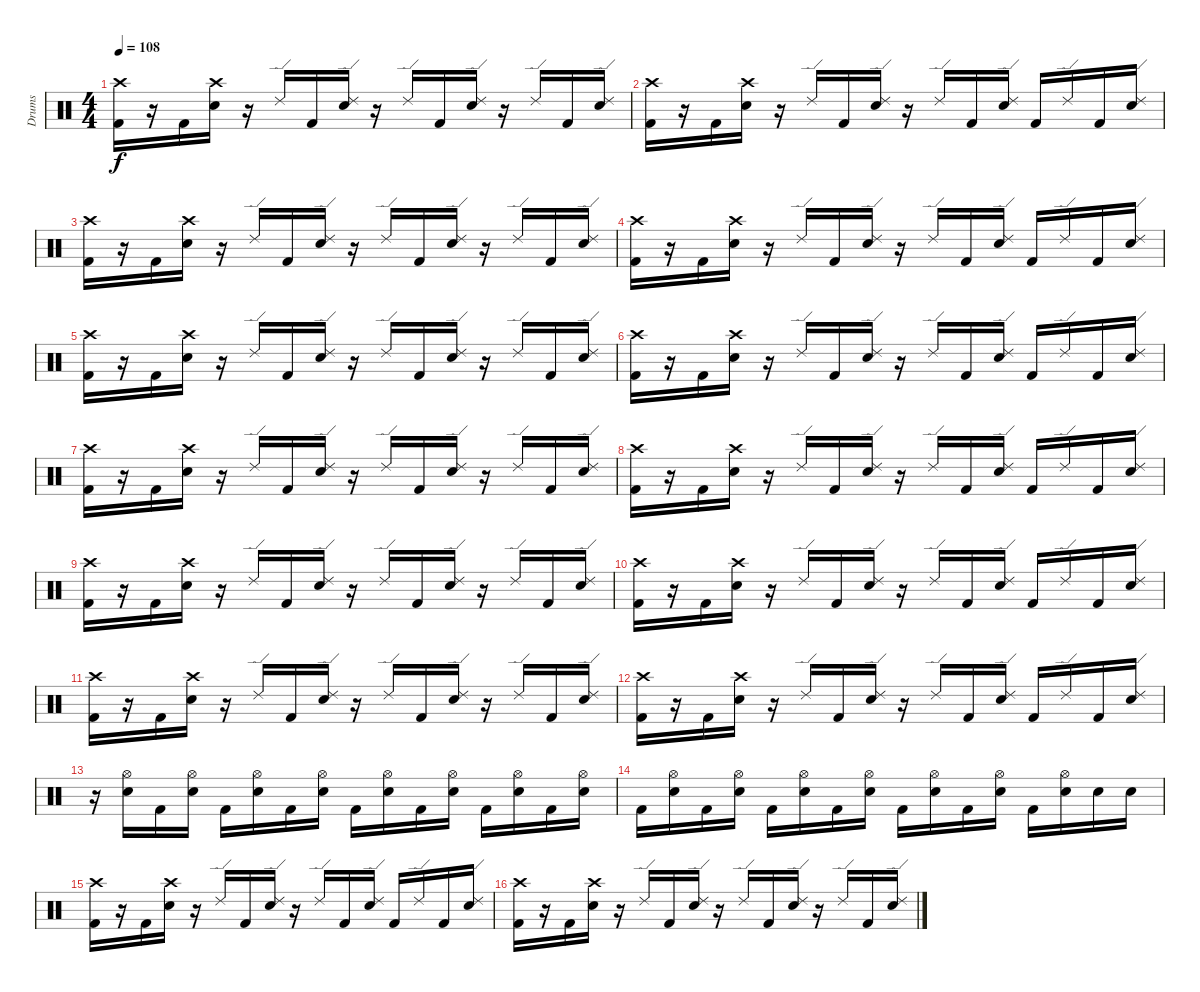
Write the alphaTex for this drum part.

\track ("Drums" "Drums") {instrument percussion}
\staff {score}
\articulation defaults
\ts (4 4)
\tempo 108
\clef neutral
\ks c
("Crash high (hit)" "Kick (hit) 2").16{dy f} r.16 "Kick (hit) 2".16 ("Crash high (hit)" "Electric Snare (hit)").16 r.16 "Ride (edge) 2".16 "Kick (hit) 2".16 ("Ride (edge) 2" "Electric Snare (hit)").16 r.16 "Ride (edge) 2".16 "Kick (hit) 2".16 ("Ride (edge) 2" "Electric Snare (hit)").16 r.16 "Ride (edge) 2".16 "Kick (hit) 2".16 ("Ride (edge) 2" "Electric Snare (hit)").16 |
("Crash high (hit)" "Kick (hit) 2").16 r.16 "Kick (hit) 2".16 ("Crash high (hit)" "Electric Snare (hit)").16 r.16 "Ride (edge) 2".16 "Kick (hit) 2".16 ("Ride (edge) 2" "Electric Snare (hit)").16 r.16 "Ride (edge) 2".16 "Kick (hit) 2".16 ("Ride (edge) 2" "Electric Snare (hit)").16 "Kick (hit) 2".16 "Ride (edge) 2".16 "Kick (hit) 2".16 ("Ride (edge) 2" "Electric Snare (hit)").16 |
("Crash high (hit)" "Kick (hit) 2").16 r.16 "Kick (hit) 2".16 ("Crash high (hit)" "Electric Snare (hit)").16 r.16 "Ride (edge) 2".16 "Kick (hit) 2".16 ("Ride (edge) 2" "Electric Snare (hit)").16 r.16 "Ride (edge) 2".16 "Kick (hit) 2".16 ("Ride (edge) 2" "Electric Snare (hit)").16 r.16 "Ride (edge) 2".16 "Kick (hit) 2".16 ("Ride (edge) 2" "Electric Snare (hit)").16 |
("Crash high (hit)" "Kick (hit) 2").16 r.16 "Kick (hit) 2".16 ("Crash high (hit)" "Electric Snare (hit)").16 r.16 "Ride (edge) 2".16 "Kick (hit) 2".16 ("Ride (edge) 2" "Electric Snare (hit)").16 r.16 "Ride (edge) 2".16 "Kick (hit) 2".16 ("Ride (edge) 2" "Electric Snare (hit)").16 "Kick (hit) 2".16 "Ride (edge) 2".16 "Kick (hit) 2".16 ("Ride (edge) 2" "Electric Snare (hit)").16 |
("Crash high (hit)" "Kick (hit) 2").16 r.16 "Kick (hit) 2".16 ("Crash high (hit)" "Electric Snare (hit)").16 r.16 "Ride (edge) 2".16 "Kick (hit) 2".16 ("Ride (edge) 2" "Electric Snare (hit)").16 r.16 "Ride (edge) 2".16 "Kick (hit) 2".16 ("Ride (edge) 2" "Electric Snare (hit)").16 r.16 "Ride (edge) 2".16 "Kick (hit) 2".16 ("Ride (edge) 2" "Electric Snare (hit)").16 |
("Crash high (hit)" "Kick (hit) 2").16 r.16 "Kick (hit) 2".16 ("Crash high (hit)" "Electric Snare (hit)").16 r.16 "Ride (edge) 2".16 "Kick (hit) 2".16 ("Ride (edge) 2" "Electric Snare (hit)").16 r.16 "Ride (edge) 2".16 "Kick (hit) 2".16 ("Ride (edge) 2" "Electric Snare (hit)").16 "Kick (hit) 2".16 "Ride (edge) 2".16 "Kick (hit) 2".16 ("Ride (edge) 2" "Electric Snare (hit)").16 |
("Crash high (hit)" "Kick (hit) 2").16 r.16 "Kick (hit) 2".16 ("Crash high (hit)" "Electric Snare (hit)").16 r.16 "Ride (edge) 2".16 "Kick (hit) 2".16 ("Ride (edge) 2" "Electric Snare (hit)").16 r.16 "Ride (edge) 2".16 "Kick (hit) 2".16 ("Ride (edge) 2" "Electric Snare (hit)").16 r.16 "Ride (edge) 2".16 "Kick (hit) 2".16 ("Ride (edge) 2" "Electric Snare (hit)").16 |
("Crash high (hit)" "Kick (hit) 2").16 r.16 "Kick (hit) 2".16 ("Crash high (hit)" "Electric Snare (hit)").16 r.16 "Ride (edge) 2".16 "Kick (hit) 2".16 ("Ride (edge) 2" "Electric Snare (hit)").16 r.16 "Ride (edge) 2".16 "Kick (hit) 2".16 ("Ride (edge) 2" "Electric Snare (hit)").16 "Kick (hit) 2".16 "Ride (edge) 2".16 "Kick (hit) 2".16 ("Ride (edge) 2" "Electric Snare (hit)").16 |
("Crash high (hit)" "Kick (hit) 2").16 r.16 "Kick (hit) 2".16 ("Crash high (hit)" "Electric Snare (hit)").16 r.16 "Ride (edge) 2".16 "Kick (hit) 2".16 ("Ride (edge) 2" "Electric Snare (hit)").16 r.16 "Ride (edge) 2".16 "Kick (hit) 2".16 ("Ride (edge) 2" "Electric Snare (hit)").16 r.16 "Ride (edge) 2".16 "Kick (hit) 2".16 ("Ride (edge) 2" "Electric Snare (hit)").16 |
("Crash high (hit)" "Kick (hit) 2").16 r.16 "Kick (hit) 2".16 ("Crash high (hit)" "Electric Snare (hit)").16 r.16 "Ride (edge) 2".16 "Kick (hit) 2".16 ("Ride (edge) 2" "Electric Snare (hit)").16 r.16 "Ride (edge) 2".16 "Kick (hit) 2".16 ("Ride (edge) 2" "Electric Snare (hit)").16 "Kick (hit) 2".16 "Ride (edge) 2".16 "Kick (hit) 2".16 ("Ride (edge) 2" "Electric Snare (hit)").16 |
("Crash high (hit)" "Kick (hit) 2").16 r.16 "Kick (hit) 2".16 ("Crash high (hit)" "Electric Snare (hit)").16 r.16 "Ride (edge) 2".16 "Kick (hit) 2".16 ("Ride (edge) 2" "Electric Snare (hit)").16 r.16 "Ride (edge) 2".16 "Kick (hit) 2".16 ("Ride (edge) 2" "Electric Snare (hit)").16 r.16 "Ride (edge) 2".16 "Kick (hit) 2".16 ("Ride (edge) 2" "Electric Snare (hit)").16 |
("Crash high (hit)" "Kick (hit) 2").16 r.16 "Kick (hit) 2".16 ("Crash high (hit)" "Electric Snare (hit)").16 r.16 "Ride (edge) 2".16 "Kick (hit) 2".16 ("Ride (edge) 2" "Electric Snare (hit)").16 r.16 "Ride (edge) 2".16 "Kick (hit) 2".16 ("Ride (edge) 2" "Electric Snare (hit)").16 "Kick (hit) 2".16 "Ride (edge) 2".16 "Kick (hit) 2".16 ("Ride (edge) 2" "Electric Snare (hit)").16 |
r.16 ("Hi-Hat (open)" "Electric Snare (hit)").16 "Kick (hit) 2".16 ("Hi-Hat (open)" "Electric Snare (hit)").16 "Kick (hit) 2".16 ("Hi-Hat (open)" "Electric Snare (hit)").16 "Kick (hit) 2".16 ("Hi-Hat (open)" "Electric Snare (hit)").16 "Kick (hit) 2".16 ("Hi-Hat (open)" "Electric Snare (hit)").16 "Kick (hit) 2".16 ("Hi-Hat (open)" "Electric Snare (hit)").16 "Kick (hit) 2".16 ("Hi-Hat (open)" "Electric Snare (hit)").16 "Kick (hit) 2".16 ("Hi-Hat (open)" "Electric Snare (hit)").16 |
"Kick (hit) 2".16 ("Hi-Hat (open)" "Electric Snare (hit)").16 "Kick (hit) 2".16 ("Hi-Hat (open)" "Electric Snare (hit)").16 "Kick (hit) 2".16 ("Hi-Hat (open)" "Electric Snare (hit)").16 "Kick (hit) 2".16 ("Hi-Hat (open)" "Electric Snare (hit)").16 "Kick (hit) 2".16 ("Hi-Hat (open)" "Electric Snare (hit)").16 "Kick (hit) 2".16 ("Hi-Hat (open)" "Electric Snare (hit)").16 "Kick (hit) 2".16 ("Hi-Hat (open)" "Electric Snare (hit)").16 "Electric Snare (hit)".16 "Electric Snare (hit)".16 |
("Crash high (hit)" "Kick (hit) 2").16 r.16 "Kick (hit) 2".16 ("Crash high (hit)" "Electric Snare (hit)").16 r.16 "Ride (edge) 2".16 "Kick (hit) 2".16 ("Ride (edge) 2" "Electric Snare (hit)").16 r.16 "Ride (edge) 2".16 "Kick (hit) 2".16 ("Ride (edge) 2" "Electric Snare (hit)").16 "Kick (hit) 2".16 "Ride (edge) 2".16 "Kick (hit) 2".16 ("Ride (edge) 2" "Electric Snare (hit)").16 |
("Crash high (hit)" "Kick (hit) 2").16 r.16 "Kick (hit) 2".16 ("Crash high (hit)" "Electric Snare (hit)").16 r.16 "Ride (edge) 2".16 "Kick (hit) 2".16 ("Ride (edge) 2" "Electric Snare (hit)").16 r.16 "Ride (edge) 2".16 "Kick (hit) 2".16 ("Ride (edge) 2" "Electric Snare (hit)").16 r.16 "Ride (edge) 2".16 "Kick (hit) 2".16 ("Ride (edge) 2" "Electric Snare (hit)").16
